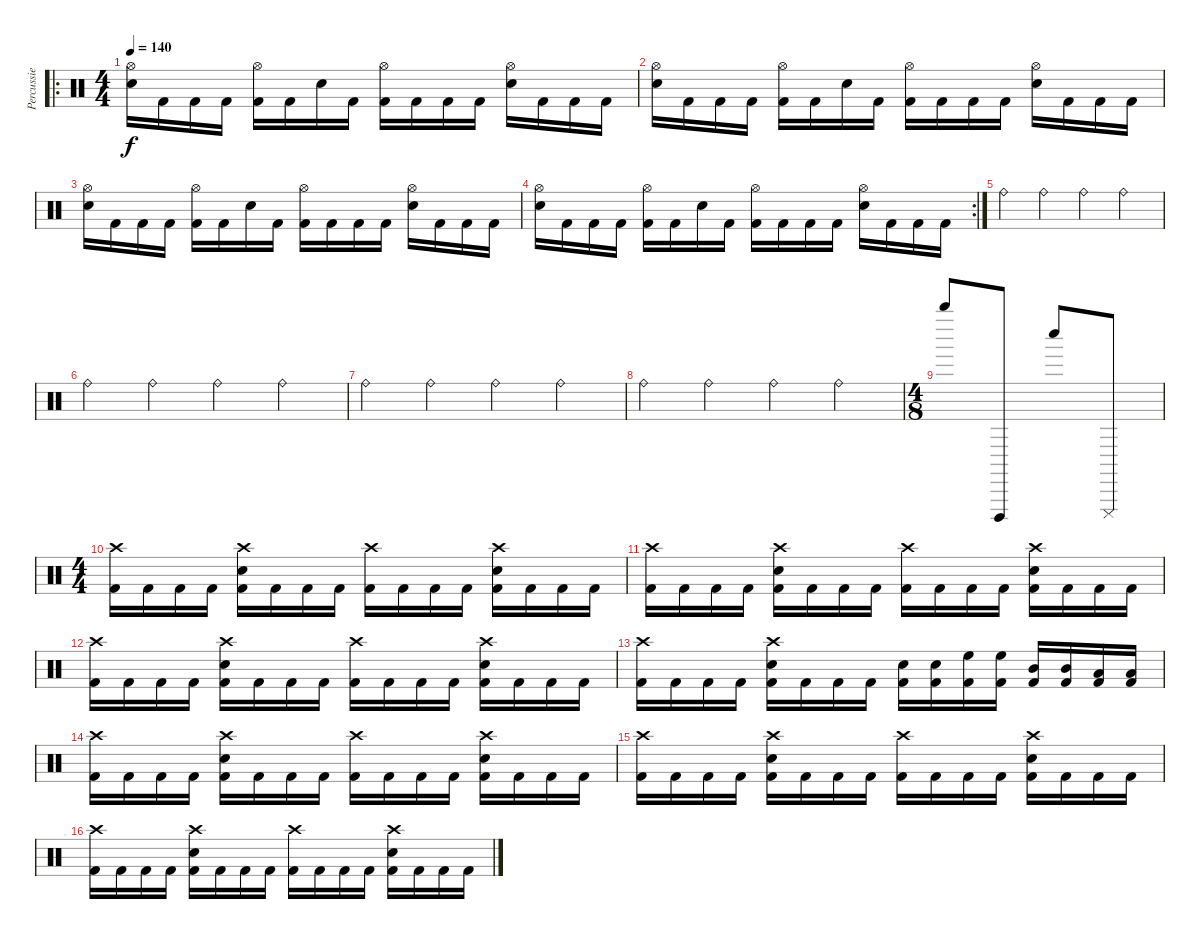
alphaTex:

\track ("Percussie" "Percussie") {instrument percussion}
\staff {score}
\articulation defaults
\ro
\ts (4 4)
\tempo 140
\clef neutral
\ks c
("Hi-Hat (open)" "Snare (hit) 2").16{dy f} "Kick (hit) 2".16 "Kick (hit) 2".16 "Kick (hit) 2".16 ("Hi-Hat (open)" "Kick (hit) 2").16 "Kick (hit) 2".16 "Snare (hit) 2".16 "Kick (hit) 2".16 ("Hi-Hat (open)" "Kick (hit) 2").16 "Kick (hit) 2".16 "Kick (hit) 2".16 "Kick (hit) 2".16 ("Hi-Hat (open)" "Snare (hit) 2").16 "Kick (hit) 2".16 "Kick (hit) 2".16 "Kick (hit) 2".16 |
("Hi-Hat (open)" "Snare (hit) 2").16 "Kick (hit) 2".16 "Kick (hit) 2".16 "Kick (hit) 2".16 ("Hi-Hat (open)" "Kick (hit) 2").16 "Kick (hit) 2".16 "Snare (hit) 2".16 "Kick (hit) 2".16 ("Hi-Hat (open)" "Kick (hit) 2").16 "Kick (hit) 2".16 "Kick (hit) 2".16 "Kick (hit) 2".16 ("Hi-Hat (open)" "Snare (hit) 2").16 "Kick (hit) 2".16 "Kick (hit) 2".16 "Kick (hit) 2".16 |
("Hi-Hat (open)" "Snare (hit) 2").16 "Kick (hit) 2".16 "Kick (hit) 2".16 "Kick (hit) 2".16 ("Hi-Hat (open)" "Kick (hit) 2").16 "Kick (hit) 2".16 "Snare (hit) 2".16 "Kick (hit) 2".16 ("Hi-Hat (open)" "Kick (hit) 2").16 "Kick (hit) 2".16 "Kick (hit) 2".16 "Kick (hit) 2".16 ("Hi-Hat (open)" "Snare (hit) 2").16 "Kick (hit) 2".16 "Kick (hit) 2".16 "Kick (hit) 2".16 |
\rc 2
("Hi-Hat (open)" "Snare (hit) 2").16 "Kick (hit) 2".16 "Kick (hit) 2".16 "Kick (hit) 2".16 ("Hi-Hat (open)" "Kick (hit) 2").16 "Kick (hit) 2".16 "Snare (hit) 2".16 "Kick (hit) 2".16 ("Hi-Hat (open)" "Kick (hit) 2").16 "Kick (hit) 2".16 "Kick (hit) 2".16 "Kick (hit) 2".16 ("Hi-Hat (open)" "Snare (hit) 2").16 "Kick (hit) 2".16 "Kick (hit) 2".16 "Kick (hit) 2".16 |
"Ride (bell)".4 "Ride (bell)".4 "Ride (bell)".4 "Ride (bell)".4 |
"Ride (bell)".4 "Ride (bell)".4 "Ride (bell)".4 "Ride (bell)".4 |
"Ride (bell)".4 "Ride (bell)".4 "Ride (bell)".4 "Ride (bell)".4 |
"Ride (bell)".4 "Ride (bell)".4 "Ride (bell)".4 "Ride (bell)".4 |
\ts (4 8)
"Whistle high (hit)".8 "Cuica (open)".8 "Whistle low (hit)".8 "Cuica (mute)".8 |
\ts (4 4)
("Crash high (hit)" "Kick (hit) 2").16 "Kick (hit) 2".16 "Kick (hit) 2".16 "Kick (hit) 2".16 ("Crash high (hit)" "Snare (hit) 2" "Kick (hit) 2").16 "Kick (hit) 2".16 "Kick (hit) 2".16 "Kick (hit) 2".16 ("Crash high (hit)" "Kick (hit) 2").16 "Kick (hit) 2".16 "Kick (hit) 2".16 "Kick (hit) 2".16 ("Crash high (hit)" "Snare (hit) 2" "Kick (hit) 2").16 "Kick (hit) 2".16 "Kick (hit) 2".16 "Kick (hit) 2".16 |
("Crash high (hit)" "Kick (hit) 2").16 "Kick (hit) 2".16 "Kick (hit) 2".16 "Kick (hit) 2".16 ("Crash high (hit)" "Snare (hit) 2" "Kick (hit) 2").16 "Kick (hit) 2".16 "Kick (hit) 2".16 "Kick (hit) 2".16 ("Crash high (hit)" "Kick (hit) 2").16 "Kick (hit) 2".16 "Kick (hit) 2".16 "Kick (hit) 2".16 ("Crash high (hit)" "Snare (hit) 2" "Kick (hit) 2").16 "Kick (hit) 2".16 "Kick (hit) 2".16 "Kick (hit) 2".16 |
("Crash high (hit)" "Kick (hit) 2").16 "Kick (hit) 2".16 "Kick (hit) 2".16 "Kick (hit) 2".16 ("Crash high (hit)" "Snare (hit) 2" "Kick (hit) 2").16 "Kick (hit) 2".16 "Kick (hit) 2".16 "Kick (hit) 2".16 ("Crash high (hit)" "Kick (hit) 2").16 "Kick (hit) 2".16 "Kick (hit) 2".16 "Kick (hit) 2".16 ("Crash high (hit)" "Snare (hit) 2" "Kick (hit) 2").16 "Kick (hit) 2".16 "Kick (hit) 2".16 "Kick (hit) 2".16 |
("Crash high (hit)" "Kick (hit) 2").16 "Kick (hit) 2".16 "Kick (hit) 2".16 "Kick (hit) 2".16 ("Crash high (hit)" "Snare (hit) 2" "Kick (hit) 2").16 "Kick (hit) 2".16 "Kick (hit) 2".16 "Kick (hit) 2".16 ("Snare (hit) 2" "Kick (hit) 2").16 ("Snare (hit) 2" "Kick (hit) 2").16 ("High Floor Tom (hit)" "Kick (hit) 2").16 ("High Floor Tom (hit)" "Kick (hit) 2").16 ("Mid Tom (hit)" "Kick (hit) 2").16 ("Mid Tom (hit)" "Kick (hit) 2").16 ("Low Tom (hit)" "Kick (hit) 2").16 ("Low Floor Tom (hit)" "Kick (hit) 2").16 |
("Crash high (hit)" "Kick (hit) 2").16 "Kick (hit) 2".16 "Kick (hit) 2".16 "Kick (hit) 2".16 ("Crash high (hit)" "Snare (hit) 2" "Kick (hit) 2").16 "Kick (hit) 2".16 "Kick (hit) 2".16 "Kick (hit) 2".16 ("Crash high (hit)" "Kick (hit) 2").16 "Kick (hit) 2".16 "Kick (hit) 2".16 "Kick (hit) 2".16 ("Crash high (hit)" "Snare (hit) 2" "Kick (hit) 2").16 "Kick (hit) 2".16 "Kick (hit) 2".16 "Kick (hit) 2".16 |
("Crash high (hit)" "Kick (hit) 2").16 "Kick (hit) 2".16 "Kick (hit) 2".16 "Kick (hit) 2".16 ("Crash high (hit)" "Snare (hit) 2" "Kick (hit) 2").16 "Kick (hit) 2".16 "Kick (hit) 2".16 "Kick (hit) 2".16 ("Crash high (hit)" "Kick (hit) 2").16 "Kick (hit) 2".16 "Kick (hit) 2".16 "Kick (hit) 2".16 ("Crash high (hit)" "Snare (hit) 2" "Kick (hit) 2").16 "Kick (hit) 2".16 "Kick (hit) 2".16 "Kick (hit) 2".16 |
("Crash high (hit)" "Kick (hit) 2").16 "Kick (hit) 2".16 "Kick (hit) 2".16 "Kick (hit) 2".16 ("Crash high (hit)" "Snare (hit) 2" "Kick (hit) 2").16 "Kick (hit) 2".16 "Kick (hit) 2".16 "Kick (hit) 2".16 ("Crash high (hit)" "Kick (hit) 2").16 "Kick (hit) 2".16 "Kick (hit) 2".16 "Kick (hit) 2".16 ("Crash high (hit)" "Snare (hit) 2" "Kick (hit) 2").16 "Kick (hit) 2".16 "Kick (hit) 2".16 "Kick (hit) 2".16
